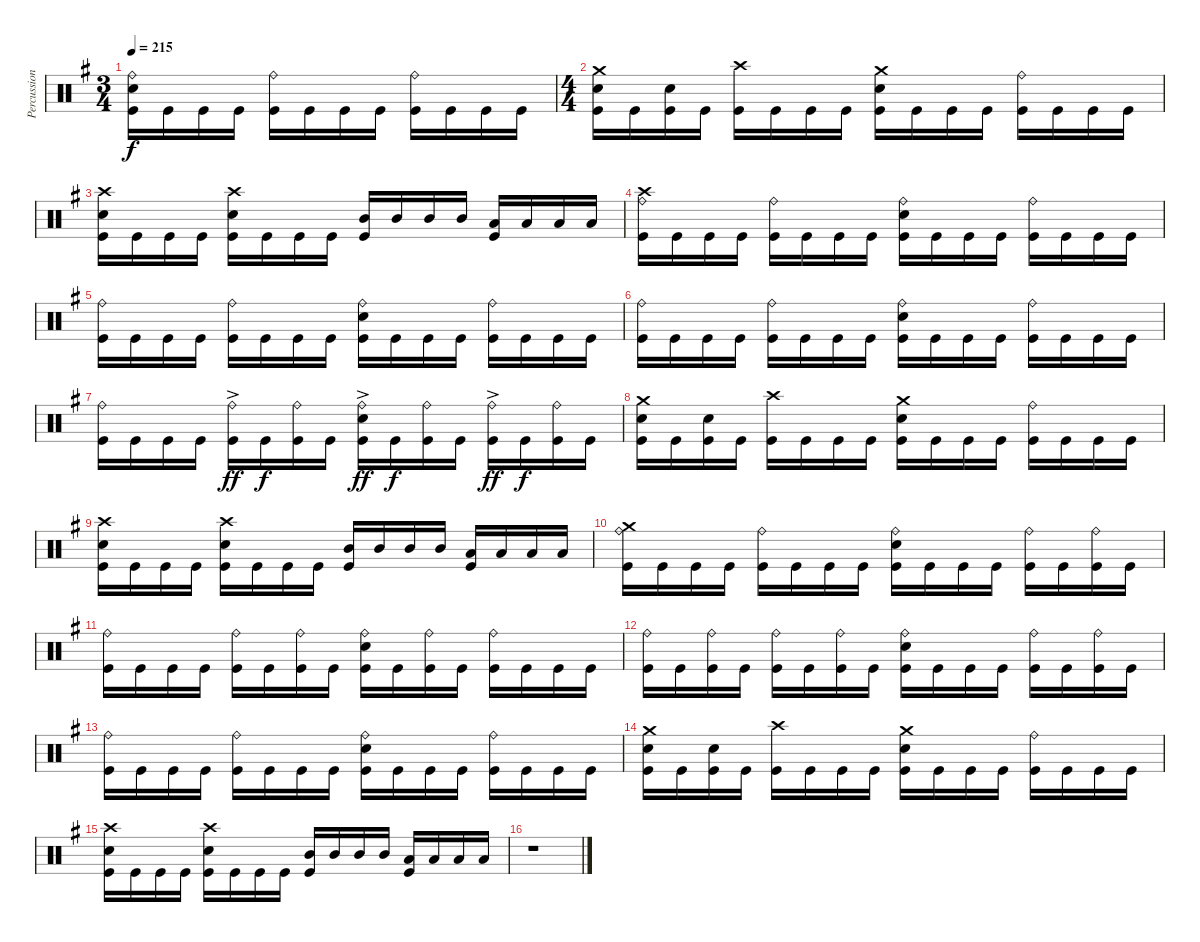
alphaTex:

\track ("Percussion" "Percussion") {instrument percussion}
\staff {score}
\articulation defaults
\ts (3 4)
\tempo 215
\clef neutral
\ks eminor
("Ride (bell)" "Snare (hit) 2" "Kick (hit)").16{dy f} "Kick (hit)".16 "Kick (hit)".16 "Kick (hit)".16 ("Ride (bell)" "Kick (hit)").16 "Kick (hit)".16 "Kick (hit)".16 "Kick (hit)".16 ("Ride (bell)" "Kick (hit)").16 "Kick (hit)".16 "Kick (hit)".16 "Kick (hit)".16 |
\ts (4 4)
("Crash medium (hit)" "Snare (hit) 2" "Kick (hit)").16 "Kick (hit)".16 ("Snare (hit) 2" "Kick (hit)").16 "Kick (hit)".16 ("Crash high (hit)" "Kick (hit)").16 "Kick (hit)".16 "Kick (hit)".16 "Kick (hit)".16 ("Crash medium (hit)" "Snare (hit) 2" "Kick (hit)").16 "Kick (hit)".16 "Kick (hit)".16 "Kick (hit)".16 ("Ride (bell)" "Kick (hit)").16 "Kick (hit)".16 "Kick (hit)".16 "Kick (hit)".16 |
("Crash high (hit)" "Snare (hit) 2" "Kick (hit)").16 "Kick (hit)".16 "Kick (hit)".16 "Kick (hit)".16 ("Crash high (hit)" "Snare (hit) 2" "Kick (hit)").16 "Kick (hit)".16 "Kick (hit)".16 "Kick (hit)".16 ("Mid Tom (hit)" "Kick (hit)").16 "Mid Tom (hit)".16 "Mid Tom (hit)".16 "Mid Tom (hit)".16 ("Low Tom (hit)" "Kick (hit)").16 "Low Tom (hit)".16 "Low Tom (hit)".16 "Low Tom (hit)".16 |
("Crash high (hit)" "Ride (bell)" "Kick (hit)").16 "Kick (hit)".16 "Kick (hit)".16 "Kick (hit)".16 ("Ride (bell)" "Kick (hit)").16 "Kick (hit)".16 "Kick (hit)".16 "Kick (hit)".16 ("Ride (bell)" "Snare (hit) 2" "Kick (hit)").16 "Kick (hit)".16 "Kick (hit)".16 "Kick (hit)".16 ("Ride (bell)" "Kick (hit)").16 "Kick (hit)".16 "Kick (hit)".16 "Kick (hit)".16 |
("Ride (bell)" "Kick (hit)").16 "Kick (hit)".16 "Kick (hit)".16 "Kick (hit)".16 ("Ride (bell)" "Kick (hit)").16 "Kick (hit)".16 "Kick (hit)".16 "Kick (hit)".16 ("Ride (bell)" "Snare (hit) 2" "Kick (hit)").16 "Kick (hit)".16 "Kick (hit)".16 "Kick (hit)".16 ("Ride (bell)" "Kick (hit)").16 "Kick (hit)".16 "Kick (hit)".16 "Kick (hit)".16 |
("Ride (bell)" "Kick (hit)").16 "Kick (hit)".16 "Kick (hit)".16 "Kick (hit)".16 ("Ride (bell)" "Kick (hit)").16 "Kick (hit)".16 "Kick (hit)".16 "Kick (hit)".16 ("Ride (bell)" "Snare (hit) 2" "Kick (hit)").16 "Kick (hit)".16 "Kick (hit)".16 "Kick (hit)".16 ("Ride (bell)" "Kick (hit)").16 "Kick (hit)".16 "Kick (hit)".16 "Kick (hit)".16 |
("Ride (bell)" "Kick (hit)").16 "Kick (hit)".16 "Kick (hit)".16 "Kick (hit)".16 ("Ride (bell)"{ac} "Kick (hit)").16{dy ff} "Kick (hit)".16{dy f} ("Ride (bell)" "Kick (hit)").16 "Kick (hit)".16 ("Ride (bell)"{ac} "Snare (hit) 2" "Kick (hit)").16{dy ff} "Kick (hit)".16{dy f} ("Ride (bell)" "Kick (hit)").16 "Kick (hit)".16 ("Ride (bell)"{ac} "Kick (hit)").16{dy ff} "Kick (hit)".16{dy f} ("Ride (bell)" "Kick (hit)").16 "Kick (hit)".16 |
("Crash medium (hit)" "Snare (hit) 2" "Kick (hit)").16 "Kick (hit)".16 ("Snare (hit) 2" "Kick (hit)").16 "Kick (hit)".16 ("Crash high (hit)" "Kick (hit)").16 "Kick (hit)".16 "Kick (hit)".16 "Kick (hit)".16 ("Crash medium (hit)" "Snare (hit) 2" "Kick (hit)").16 "Kick (hit)".16 "Kick (hit)".16 "Kick (hit)".16 ("Ride (bell)" "Kick (hit)").16 "Kick (hit)".16 "Kick (hit)".16 "Kick (hit)".16 |
("Crash high (hit)" "Snare (hit) 2" "Kick (hit)").16 "Kick (hit)".16 "Kick (hit)".16 "Kick (hit)".16 ("Crash high (hit)" "Snare (hit) 2" "Kick (hit)").16 "Kick (hit)".16 "Kick (hit)".16 "Kick (hit)".16 ("Mid Tom (hit)" "Kick (hit)").16 "Mid Tom (hit)".16 "Mid Tom (hit)".16 "Mid Tom (hit)".16 ("Low Tom (hit)" "Kick (hit)").16 "Low Tom (hit)".16 "Low Tom (hit)".16 "Low Tom (hit)".16 |
("Crash medium (hit)" "Ride (bell)" "Kick (hit)").16 "Kick (hit)".16 "Kick (hit)".16 "Kick (hit)".16 ("Ride (bell)" "Kick (hit)").16 "Kick (hit)".16 "Kick (hit)".16 "Kick (hit)".16 ("Ride (bell)" "Snare (hit) 2" "Kick (hit)").16 "Kick (hit)".16 "Kick (hit)".16 "Kick (hit)".16 ("Ride (bell)" "Kick (hit)").16 "Kick (hit)".16 ("Ride (bell)" "Kick (hit)").16 "Kick (hit)".16 |
("Ride (bell)" "Kick (hit)").16 "Kick (hit)".16 "Kick (hit)".16 "Kick (hit)".16 ("Ride (bell)" "Kick (hit)").16 "Kick (hit)".16 ("Ride (bell)" "Kick (hit)").16 "Kick (hit)".16 ("Ride (bell)" "Snare (hit) 2" "Kick (hit)").16 "Kick (hit)".16 ("Ride (bell)" "Kick (hit)").16 "Kick (hit)".16 ("Ride (bell)" "Kick (hit)").16 "Kick (hit)".16 "Kick (hit)".16 "Kick (hit)".16 |
("Ride (bell)" "Kick (hit)").16 "Kick (hit)".16 ("Ride (bell)" "Kick (hit)").16 "Kick (hit)".16 ("Ride (bell)" "Kick (hit)").16 "Kick (hit)".16 ("Ride (bell)" "Kick (hit)").16 "Kick (hit)".16 ("Ride (bell)" "Snare (hit) 2" "Kick (hit)").16 "Kick (hit)".16 "Kick (hit)".16 "Kick (hit)".16 ("Ride (bell)" "Kick (hit)").16 "Kick (hit)".16 ("Ride (bell)" "Kick (hit)").16 "Kick (hit)".16 |
("Ride (bell)" "Kick (hit)").16 "Kick (hit)".16 "Kick (hit)".16 "Kick (hit)".16 ("Ride (bell)" "Kick (hit)").16 "Kick (hit)".16 "Kick (hit)".16 "Kick (hit)".16 ("Ride (bell)" "Snare (hit) 2" "Kick (hit)").16 "Kick (hit)".16 "Kick (hit)".16 "Kick (hit)".16 ("Ride (bell)" "Kick (hit)").16 "Kick (hit)".16 "Kick (hit)".16 "Kick (hit)".16 |
("Crash medium (hit)" "Snare (hit) 2" "Kick (hit)").16 "Kick (hit)".16 ("Snare (hit) 2" "Kick (hit)").16 "Kick (hit)".16 ("Crash high (hit)" "Kick (hit)").16 "Kick (hit)".16 "Kick (hit)".16 "Kick (hit)".16 ("Crash medium (hit)" "Snare (hit) 2" "Kick (hit)").16 "Kick (hit)".16 "Kick (hit)".16 "Kick (hit)".16 ("Ride (bell)" "Kick (hit)").16 "Kick (hit)".16 "Kick (hit)".16 "Kick (hit)".16 |
("Crash high (hit)" "Snare (hit) 2" "Kick (hit)").16 "Kick (hit)".16 "Kick (hit)".16 "Kick (hit)".16 ("Crash high (hit)" "Snare (hit) 2" "Kick (hit)").16 "Kick (hit)".16 "Kick (hit)".16 "Kick (hit)".16 ("Mid Tom (hit)" "Kick (hit)").16 "Mid Tom (hit)".16 "Mid Tom (hit)".16 "Mid Tom (hit)".16 ("Low Tom (hit)" "Kick (hit)").16 "Low Tom (hit)".16 "Low Tom (hit)".16 "Low Tom (hit)".16 |
r.1
